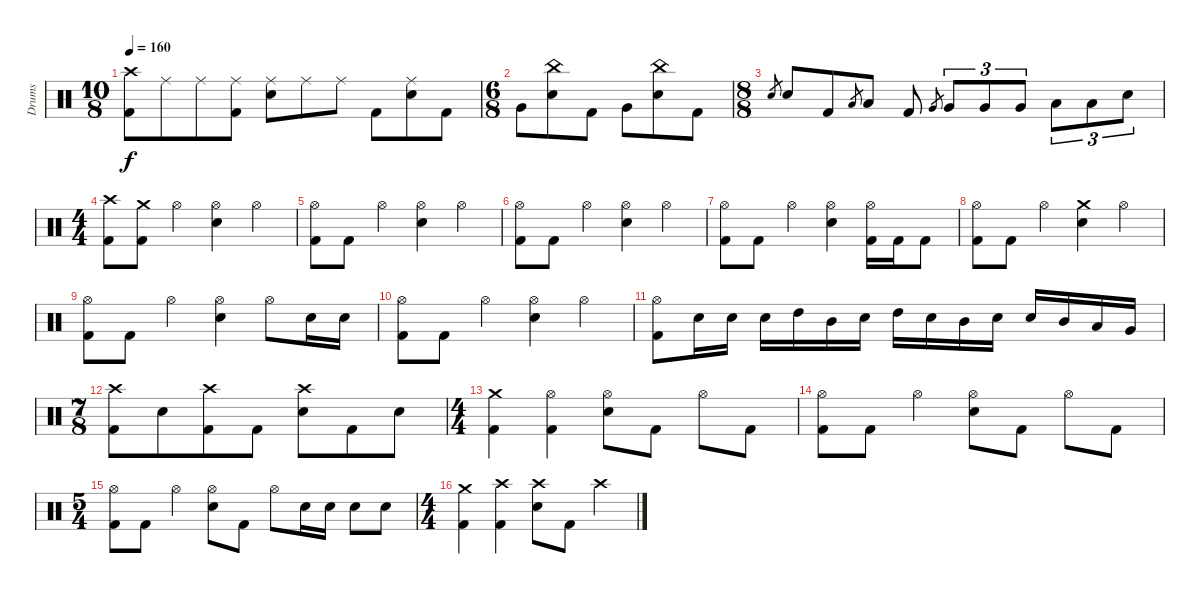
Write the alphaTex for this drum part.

\track ("Drums" "Drums") {instrument percussion}
\staff {score}
\articulation defaults
\ts (10 8)
\tempo 160
\clef neutral
\ks c
("Crash high (hit)" "Kick (hit) 2").8{dy f} "Ride (middle)".8 "Ride (middle)".8 ("Ride (middle)" "Kick (hit) 2").8 ("Ride (middle)" "Electric Snare (hit)").8 "Ride (middle)".8 "Ride (middle)".8 "Kick (hit) 2".8 ("Ride (middle)" "Electric Snare (hit)").8 "Kick (hit) 2".8 |
\ts (6 8)
"Very Low Tom (hit)".8 ("China (hit)" "Electric Snare (hit)").8 "Kick (hit) 2".8 "Very Low Tom (hit)".8 ("China (hit)" "Electric Snare (hit)").8 "Kick (hit) 2".8 |
\ts (8 8)
"Electric Snare (hit)".8{gr} "Electric Snare (hit)".8 "Kick (hit) 2".8 "Low Tom (hit)".8{gr} "Low Tom (hit)".8 "Kick (hit) 2".8 "Very Low Tom (hit)".8{gr} "Very Low Tom (hit)".8{tu (3 2)} "Very Low Tom (hit)".8{tu (3 2)} "Very Low Tom (hit)".8{tu (3 2)} "Low Floor Tom (hit)".8{tu (3 2)} "Low Floor Tom (hit)".8{tu (3 2)} "Electric Snare (hit)".8{tu (3 2)} |
\ts (4 4)
("Crash high (hit)" "Kick (hit) 2").8 ("Crash medium (hit)" "Kick (hit) 2").8 "Hi-Hat (open)".4 ("Hi-Hat (open)" "Electric Snare (hit)").4 "Hi-Hat (open)".4 |
("Hi-Hat (open)" "Kick (hit) 2").8 "Kick (hit) 2".8 "Hi-Hat (open)".4 ("Hi-Hat (open)" "Electric Snare (hit)").4 "Hi-Hat (open)".4 |
("Hi-Hat (open)" "Kick (hit) 2").8 "Kick (hit) 2".8 "Hi-Hat (open)".4 ("Hi-Hat (open)" "Electric Snare (hit)").4 "Hi-Hat (open)".4 |
("Hi-Hat (open)" "Kick (hit) 2").8 "Kick (hit) 2".8 "Hi-Hat (open)".4 ("Hi-Hat (open)" "Electric Snare (hit)").4 ("Hi-Hat (open)" "Kick (hit) 2").16 "Kick (hit) 2".16 "Kick (hit) 2".8 |
("Hi-Hat (open)" "Kick (hit) 2").8 "Kick (hit) 2".8 "Hi-Hat (open)".4 ("Crash medium (hit)" "Electric Snare (hit)").4 "Hi-Hat (open)".4 |
("Hi-Hat (open)" "Kick (hit) 2").8 "Kick (hit) 2".8 "Hi-Hat (open)".4 ("Hi-Hat (open)" "Electric Snare (hit)").4 "Hi-Hat (open)".8 "Electric Snare (hit)".16 "Electric Snare (hit)".16 |
("Hi-Hat (open)" "Kick (hit) 2").8 "Kick (hit) 2".8 "Hi-Hat (open)".4 ("Hi-Hat (open)" "Electric Snare (hit)").4 "Hi-Hat (open)".4 |
("Hi-Hat (open)" "Kick (hit) 2").8 "Electric Snare (hit)".16 "Electric Snare (hit)".16 "Electric Snare (hit)".16 "High Tom (hit)".16 "Mid Tom (hit)".16 "Electric Snare (hit)".16 "High Tom (hit)".16 "Electric Snare (hit)".16 "Mid Tom (hit)".16 "Electric Snare (hit)".16 "Electric Snare (hit)".16 "Mid Tom (hit)".16 "Low Tom (hit)".16 "Very Low Tom (hit)".16 |
\ts (7 8)
("Crash high (hit)" "Kick (hit) 2").8 "Electric Snare (hit)".8 ("Crash high (hit)" "Kick (hit) 2").8 "Kick (hit) 2".8 ("Crash high (hit)" "Electric Snare (hit)").8 "Kick (hit) 2".8 "Electric Snare (hit)".8 |
\ts (4 4)
("Crash medium (hit)" "Kick (hit) 2").4 ("Hi-Hat (open)" "Kick (hit) 2").4 ("Hi-Hat (open)" "Electric Snare (hit)").8 "Kick (hit) 2".8 "Hi-Hat (open)".8 "Kick (hit) 2".8 |
("Hi-Hat (open)" "Kick (hit) 2").8 "Kick (hit) 2".8 "Hi-Hat (open)".4 ("Hi-Hat (open)" "Electric Snare (hit)").8 "Kick (hit) 2".8 "Hi-Hat (open)".8 "Kick (hit) 2".8 |
\ts (5 4)
("Hi-Hat (open)" "Kick (hit) 2").8 "Kick (hit) 2".8 "Hi-Hat (open)".4 ("Hi-Hat (open)" "Electric Snare (hit)").8 "Kick (hit) 2".8 "Hi-Hat (open)".8 "Electric Snare (hit)".16 "Electric Snare (hit)".16 "Electric Snare (hit)".8 "Electric Snare (hit)".8 |
\ts (4 4)
("Crash medium (hit)" "Kick (hit) 2").4 ("Crash high (hit)" "Kick (hit) 2").4 ("Crash high (hit)" "Electric Snare (hit)").8 "Kick (hit) 2".8 "Crash high (hit)".4
